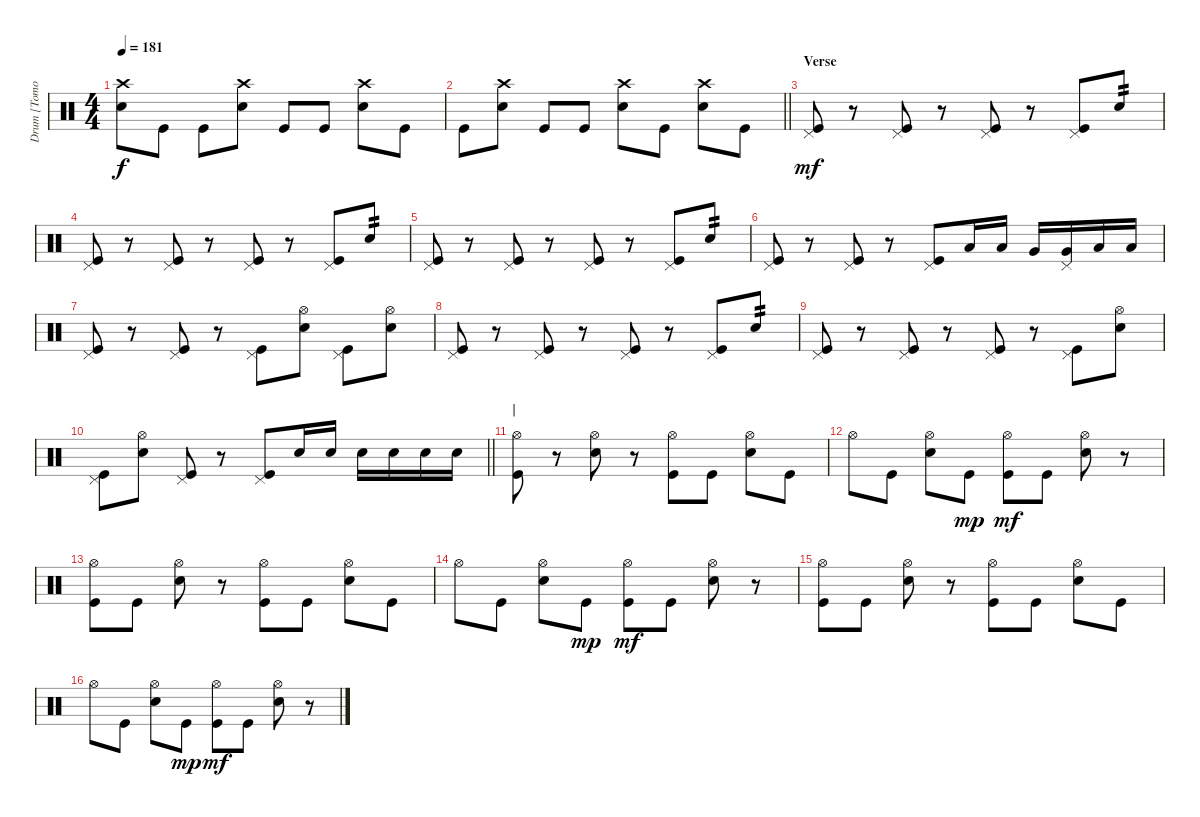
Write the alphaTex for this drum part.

\track ("Drum [Tomoya]" "Drum [Tomo") {instrument percussion}
\staff {score}
\articulation defaults
\ts (4 4)
\tempo 181
\clef neutral
\ks c
("Snare (hit) 2" "Crash high (hit)").8{dy f} "Kick (hit)".8 "Kick (hit)".8 ("Snare (hit) 2" "Crash high (hit)").8 "Kick (hit)".8 "Kick (hit)".8 ("Snare (hit) 2" "Crash high (hit)").8 "Kick (hit)".8 |
\barLineRight lightlight "Kick (hit)".8
("Snare (hit) 2" "Crash high (hit)").8 "Kick (hit)".8 "Kick (hit)".8 ("Snare (hit) 2" "Crash high (hit)").8 "Kick (hit)".8 ("Snare (hit) 2" "Crash high (hit)").8 "Kick (hit)".8 |
\section ("" "Verse")
("Kick (hit)" "Pedal Hi-Hat (hit)").8{dy mf} r.8 ("Kick (hit)" "Pedal Hi-Hat (hit)").8 r.8 ("Kick (hit)" "Pedal Hi-Hat (hit)").8 r.8 ("Kick (hit)" "Pedal Hi-Hat (hit)").8 "Snare (hit) 2".8{tp 2} |
("Kick (hit)" "Pedal Hi-Hat (hit)").8 r.8 ("Kick (hit)" "Pedal Hi-Hat (hit)").8 r.8 ("Kick (hit)" "Pedal Hi-Hat (hit)").8 r.8 ("Kick (hit)" "Pedal Hi-Hat (hit)").8 "Snare (hit) 2".8{tp 2} |
("Kick (hit)" "Pedal Hi-Hat (hit)").8 r.8 ("Kick (hit)" "Pedal Hi-Hat (hit)").8 r.8 ("Kick (hit)" "Pedal Hi-Hat (hit)").8 r.8 ("Kick (hit)" "Pedal Hi-Hat (hit)").8 "Snare (hit) 2".8{tp 2} |
("Kick (hit)" "Pedal Hi-Hat (hit)").8 r.8 ("Kick (hit)" "Pedal Hi-Hat (hit)").8 r.8 ("Kick (hit)" "Pedal Hi-Hat (hit)").8 "Low Tom (hit)".16 "Low Tom (hit)".16 "Very Low Tom (hit)".16 ("Very Low Tom (hit)" "Pedal Hi-Hat (hit)").16 "Low Floor Tom (hit)".16 "Low Floor Tom (hit)".16 |
("Kick (hit)" "Pedal Hi-Hat (hit)").8 r.8 ("Kick (hit)" "Pedal Hi-Hat (hit)").8 r.8 ("Kick (hit)" "Pedal Hi-Hat (hit)").8 ("Snare (hit) 2" "Hi-Hat (open)").8 ("Kick (hit)" "Pedal Hi-Hat (hit)").8 ("Snare (hit) 2" "Hi-Hat (open)").8 |
("Kick (hit)" "Pedal Hi-Hat (hit)").8 r.8 ("Kick (hit)" "Pedal Hi-Hat (hit)").8 r.8 ("Kick (hit)" "Pedal Hi-Hat (hit)").8 r.8 ("Kick (hit)" "Pedal Hi-Hat (hit)").8 "Snare (hit) 2".8{tp 2} |
("Kick (hit)" "Pedal Hi-Hat (hit)").8 r.8 ("Kick (hit)" "Pedal Hi-Hat (hit)").8 r.8 ("Kick (hit)" "Pedal Hi-Hat (hit)").8 r.8 ("Kick (hit)" "Pedal Hi-Hat (hit)").8 ("Snare (hit) 2" "Hi-Hat (open)").8 |
\barLineRight lightlight
("Kick (hit)" "Pedal Hi-Hat (hit)").8 ("Snare (hit) 2" "Hi-Hat (open)").8 ("Kick (hit)" "Pedal Hi-Hat (hit)").8 r.8 ("Kick (hit)" "Pedal Hi-Hat (hit)").8 "Snare (hit) 2".16 "Snare (hit) 2".16 "Snare (hit) 2".16 "Snare (hit) 2".16 "Snare (hit) 2".16 "Snare (hit) 2".16 |
\section ("" "|")
("Kick (hit)" "Hi-Hat (open)").8 r.8 ("Snare (hit) 2" "Hi-Hat (open)").8 r.8 ("Kick (hit)" "Hi-Hat (open)").8 "Kick (hit)".8 ("Snare (hit) 2" "Hi-Hat (open)").8 "Kick (hit)".8 |
"Hi-Hat (open)".8 "Kick (hit)".8 ("Snare (hit) 2" "Hi-Hat (open)").8 "Kick (hit)".8{dy mp} ("Kick (hit)" "Hi-Hat (open)").8{dy mf} "Kick (hit)".8 ("Snare (hit) 2" "Hi-Hat (open)").8 r.8 |
("Kick (hit)" "Hi-Hat (open)").8 "Kick (hit)".8 ("Snare (hit) 2" "Hi-Hat (open)").8 r.8 ("Kick (hit)" "Hi-Hat (open)").8 "Kick (hit)".8 ("Snare (hit) 2" "Hi-Hat (open)").8 "Kick (hit)".8 |
"Hi-Hat (open)".8 "Kick (hit)".8 ("Snare (hit) 2" "Hi-Hat (open)").8 "Kick (hit)".8{dy mp} ("Kick (hit)" "Hi-Hat (open)").8{dy mf} "Kick (hit)".8 ("Snare (hit) 2" "Hi-Hat (open)").8 r.8 |
("Kick (hit)" "Hi-Hat (open)").8 "Kick (hit)".8 ("Snare (hit) 2" "Hi-Hat (open)").8 r.8 ("Kick (hit)" "Hi-Hat (open)").8 "Kick (hit)".8 ("Snare (hit) 2" "Hi-Hat (open)").8 "Kick (hit)".8 |
"Hi-Hat (open)".8 "Kick (hit)".8 ("Snare (hit) 2" "Hi-Hat (open)").8 "Kick (hit)".8{dy mp} ("Kick (hit)" "Hi-Hat (open)").8{dy mf} "Kick (hit)".8 ("Snare (hit) 2" "Hi-Hat (open)").8 r.8
